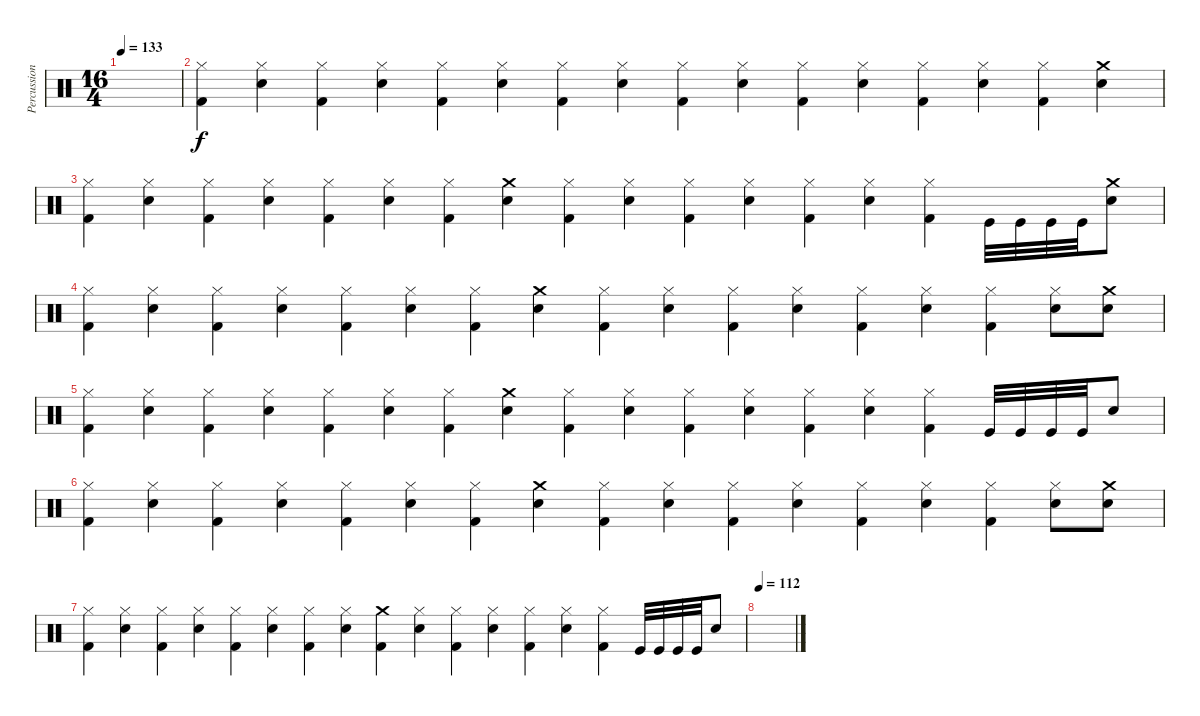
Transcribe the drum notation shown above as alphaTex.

\track ("Percussions" "Percussion") {instrument percussion}
\staff {score}
\articulation defaults
\ts (16 4)
\tempo 135
\tempo 133
\clef neutral
\ks c
|
("Kick (hit) 2" "Hi-Hat (closed)").4 ("Electric Snare (hit)" "Hi-Hat (closed)").4 ("Kick (hit) 2" "Hi-Hat (closed)").4 ("Electric Snare (hit)" "Hi-Hat (closed)").4 ("Kick (hit) 2" "Hi-Hat (closed)").4 ("Electric Snare (hit)" "Hi-Hat (closed)").4 ("Kick (hit) 2" "Hi-Hat (closed)").4 ("Electric Snare (hit)" "Hi-Hat (closed)").4 ("Kick (hit) 2" "Hi-Hat (closed)").4 ("Electric Snare (hit)" "Hi-Hat (closed)").4 ("Kick (hit) 2" "Hi-Hat (closed)").4 ("Electric Snare (hit)" "Hi-Hat (closed)").4 ("Kick (hit) 2" "Hi-Hat (closed)").4 ("Electric Snare (hit)" "Hi-Hat (closed)").4 ("Kick (hit) 2" "Hi-Hat (closed)").4 ("Electric Snare (hit)" "Crash medium (hit)").4 |
("Kick (hit) 2" "Hi-Hat (closed)").4 ("Electric Snare (hit)" "Hi-Hat (closed)").4 ("Kick (hit) 2" "Hi-Hat (closed)").4 ("Electric Snare (hit)" "Hi-Hat (closed)").4 ("Kick (hit) 2" "Hi-Hat (closed)").4 ("Electric Snare (hit)" "Hi-Hat (closed)").4 ("Kick (hit) 2" "Hi-Hat (closed)").4 ("Electric Snare (hit)" "Crash medium (hit)").4 ("Kick (hit) 2" "Hi-Hat (closed)").4 ("Electric Snare (hit)" "Hi-Hat (closed)").4 ("Kick (hit) 2" "Hi-Hat (closed)").4 ("Electric Snare (hit)" "Hi-Hat (closed)").4 ("Kick (hit) 2" "Hi-Hat (closed)").4 ("Electric Snare (hit)" "Hi-Hat (closed)").4 ("Kick (hit) 2" "Hi-Hat (closed)").4 "Kick (hit)".32 "Kick (hit)".32 "Kick (hit)".32 "Kick (hit)".32 ("Electric Snare (hit)" "Crash medium (hit)").8 |
("Kick (hit) 2" "Hi-Hat (closed)").4 ("Electric Snare (hit)" "Hi-Hat (closed)").4 ("Kick (hit) 2" "Hi-Hat (closed)").4 ("Electric Snare (hit)" "Hi-Hat (closed)").4 ("Kick (hit) 2" "Hi-Hat (closed)").4 ("Electric Snare (hit)" "Hi-Hat (closed)").4 ("Kick (hit) 2" "Hi-Hat (closed)").4 ("Electric Snare (hit)" "Crash medium (hit)").4 ("Kick (hit) 2" "Hi-Hat (closed)").4 ("Electric Snare (hit)" "Hi-Hat (closed)").4 ("Kick (hit) 2" "Hi-Hat (closed)").4 ("Electric Snare (hit)" "Hi-Hat (closed)").4 ("Kick (hit) 2" "Hi-Hat (closed)").4 ("Electric Snare (hit)" "Hi-Hat (closed)").4 ("Kick (hit) 2" "Hi-Hat (closed)").4 ("Electric Snare (hit)" "Hi-Hat (closed)").8 ("Electric Snare (hit)" "Crash medium (hit)").8 |
("Kick (hit) 2" "Hi-Hat (closed)").4 ("Electric Snare (hit)" "Hi-Hat (closed)").4 ("Kick (hit) 2" "Hi-Hat (closed)").4 ("Electric Snare (hit)" "Hi-Hat (closed)").4 ("Kick (hit) 2" "Hi-Hat (closed)").4 ("Electric Snare (hit)" "Hi-Hat (closed)").4 ("Kick (hit) 2" "Hi-Hat (closed)").4 ("Electric Snare (hit)" "Crash medium (hit)").4 ("Kick (hit) 2" "Hi-Hat (closed)").4 ("Electric Snare (hit)" "Hi-Hat (closed)").4 ("Kick (hit) 2" "Hi-Hat (closed)").4 ("Electric Snare (hit)" "Hi-Hat (closed)").4 ("Kick (hit) 2" "Hi-Hat (closed)").4 ("Electric Snare (hit)" "Hi-Hat (closed)").4 ("Kick (hit) 2" "Hi-Hat (closed)").4 "Kick (hit)".32 "Kick (hit)".32 "Kick (hit)".32 "Kick (hit)".32 "Electric Snare (hit)".8 |
("Kick (hit) 2" "Hi-Hat (closed)").4 ("Electric Snare (hit)" "Hi-Hat (closed)").4 ("Kick (hit) 2" "Hi-Hat (closed)").4 ("Electric Snare (hit)" "Hi-Hat (closed)").4 ("Kick (hit) 2" "Hi-Hat (closed)").4 ("Electric Snare (hit)" "Hi-Hat (closed)").4 ("Kick (hit) 2" "Hi-Hat (closed)").4 ("Electric Snare (hit)" "Crash medium (hit)").4 ("Kick (hit) 2" "Hi-Hat (closed)").4 ("Electric Snare (hit)" "Hi-Hat (closed)").4 ("Kick (hit) 2" "Hi-Hat (closed)").4 ("Electric Snare (hit)" "Hi-Hat (closed)").4 ("Kick (hit) 2" "Hi-Hat (closed)").4 ("Electric Snare (hit)" "Hi-Hat (closed)").4 ("Kick (hit) 2" "Hi-Hat (closed)").4 ("Electric Snare (hit)" "Hi-Hat (closed)").8 ("Electric Snare (hit)" "Crash medium (hit)").8 |
("Kick (hit) 2" "Hi-Hat (closed)").4 ("Electric Snare (hit)" "Hi-Hat (closed)").4 ("Kick (hit) 2" "Hi-Hat (closed)").4 ("Electric Snare (hit)" "Hi-Hat (closed)").4 ("Kick (hit) 2" "Hi-Hat (closed)").4 ("Electric Snare (hit)" "Hi-Hat (closed)").4 ("Kick (hit) 2" "Hi-Hat (closed)").4 ("Electric Snare (hit)" "Hi-Hat (closed)").4 ("Kick (hit) 2" "Crash medium (hit)").4 ("Electric Snare (hit)" "Hi-Hat (closed)").4 ("Kick (hit) 2" "Hi-Hat (closed)").4 ("Electric Snare (hit)" "Hi-Hat (closed)").4 ("Kick (hit) 2" "Hi-Hat (closed)").4 ("Electric Snare (hit)" "Hi-Hat (closed)").4 ("Kick (hit) 2" "Hi-Hat (closed)").4 "Kick (hit)".32 "Kick (hit)".32 "Kick (hit)".32 "Kick (hit)".32 "Electric Snare (hit)".8 |
\tempo 112
